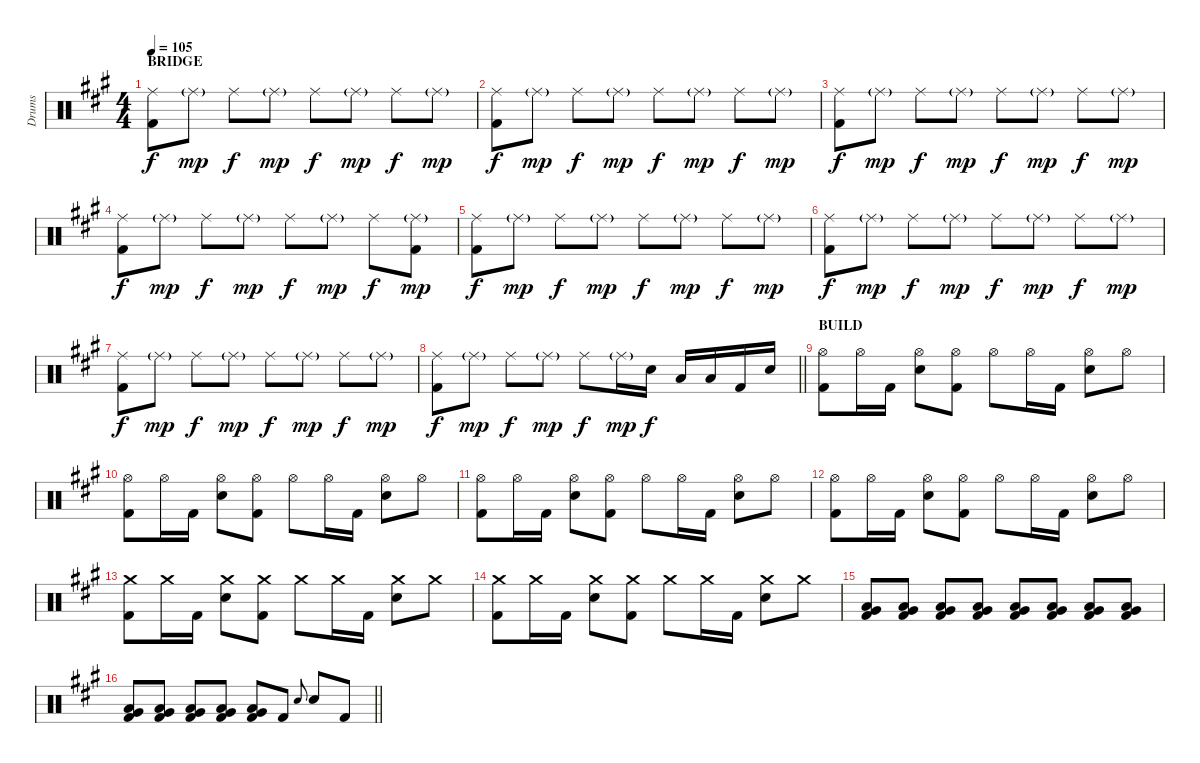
\track ("Drums" "Drums") {instrument percussion}
\staff {score}
\articulation defaults
\ts (4 4)
\section ("" "BRIDGE")
\tempo 105
\clef neutral
\ks f#minor
("Ride (middle)" "Kick (hit) 2").8{dy f} "Ride (middle)"{g}.8{dy mp} "Ride (middle)".8{dy f} "Ride (middle)"{g}.8{dy mp} "Ride (middle)".8{dy f} "Ride (middle)"{g}.8{dy mp} "Ride (middle)".8{dy f} "Ride (middle)"{g}.8{dy mp} |
("Ride (middle)" "Kick (hit) 2").8{dy f} "Ride (middle)"{g}.8{dy mp} "Ride (middle)".8{dy f} "Ride (middle)"{g}.8{dy mp} "Ride (middle)".8{dy f} "Ride (middle)"{g}.8{dy mp} "Ride (middle)".8{dy f} "Ride (middle)"{g}.8{dy mp} |
("Ride (middle)" "Kick (hit) 2").8{dy f} "Ride (middle)"{g}.8{dy mp} "Ride (middle)".8{dy f} "Ride (middle)"{g}.8{dy mp} "Ride (middle)".8{dy f} "Ride (middle)"{g}.8{dy mp} "Ride (middle)".8{dy f} "Ride (middle)"{g}.8{dy mp} |
("Ride (middle)" "Kick (hit) 2").8{dy f} "Ride (middle)"{g}.8{dy mp} "Ride (middle)".8{dy f} "Ride (middle)"{g}.8{dy mp} "Ride (middle)".8{dy f} "Ride (middle)"{g}.8{dy mp} "Ride (middle)".8{dy f} ("Ride (middle)"{g} "Kick (hit) 2").8{dy mp} |
("Ride (middle)" "Kick (hit) 2").8{dy f} "Ride (middle)"{g}.8{dy mp} "Ride (middle)".8{dy f} "Ride (middle)"{g}.8{dy mp} "Ride (middle)".8{dy f} "Ride (middle)"{g}.8{dy mp} "Ride (middle)".8{dy f} "Ride (middle)"{g}.8{dy mp} |
("Ride (middle)" "Kick (hit) 2").8{dy f} "Ride (middle)"{g}.8{dy mp} "Ride (middle)".8{dy f} "Ride (middle)"{g}.8{dy mp} "Ride (middle)".8{dy f} "Ride (middle)"{g}.8{dy mp} "Ride (middle)".8{dy f} "Ride (middle)"{g}.8{dy mp} |
("Ride (middle)" "Kick (hit) 2").8{dy f} "Ride (middle)"{g}.8{dy mp} "Ride (middle)".8{dy f} "Ride (middle)"{g}.8{dy mp} "Ride (middle)".8{dy f} "Ride (middle)"{g}.8{dy mp} "Ride (middle)".8{dy f} "Ride (middle)"{g}.8{dy mp} |
\barLineRight lightlight
("Ride (middle)" "Kick (hit) 2").8{dy f} "Ride (middle)"{g}.8{dy mp} "Ride (middle)".8{dy f} "Ride (middle)"{g}.8{dy mp} "Ride (middle)".8{dy f} "Ride (middle)"{g}.16{dy mp} "Electric Snare (hit)".16{dy f} "Low Tom (hit)".16 "Low Tom (hit)".16 "Kick (hit) 2".16 "Electric Snare (hit)".16 |
\section ("" "BUILD")
("Hi-Hat (open)" "Kick (hit) 2").8 "Hi-Hat (open)".16 "Kick (hit) 2".16 ("Electric Snare (hit)" "Hi-Hat (open)").8 ("Hi-Hat (open)" "Kick (hit) 2").8 "Hi-Hat (open)".8 "Hi-Hat (open)".16 "Kick (hit) 2".16 ("Electric Snare (hit)" "Hi-Hat (open)").8 "Hi-Hat (open)".8 |
("Hi-Hat (open)" "Kick (hit) 2").8 "Hi-Hat (open)".16 "Kick (hit) 2".16 ("Electric Snare (hit)" "Hi-Hat (open)").8 ("Hi-Hat (open)" "Kick (hit) 2").8 "Hi-Hat (open)".8 "Hi-Hat (open)".16 "Kick (hit) 2".16 ("Electric Snare (hit)" "Hi-Hat (open)").8 "Hi-Hat (open)".8 |
("Hi-Hat (open)" "Kick (hit) 2").8 "Hi-Hat (open)".16 "Kick (hit) 2".16 ("Electric Snare (hit)" "Hi-Hat (open)").8 ("Hi-Hat (open)" "Kick (hit) 2").8 "Hi-Hat (open)".8 "Hi-Hat (open)".16 "Kick (hit) 2".16 ("Electric Snare (hit)" "Hi-Hat (open)").8 "Hi-Hat (open)".8 |
("Hi-Hat (open)" "Kick (hit) 2").8 "Hi-Hat (open)".16 "Kick (hit) 2".16 ("Electric Snare (hit)" "Hi-Hat (open)").8 ("Hi-Hat (open)" "Kick (hit) 2").8 "Hi-Hat (open)".8 "Hi-Hat (open)".16 "Kick (hit) 2".16 ("Electric Snare (hit)" "Hi-Hat (open)").8 "Hi-Hat (open)".8 |
("Crash medium (hit)" "Kick (hit) 2").8 "Crash medium (hit)".16 "Kick (hit) 2".16 ("Electric Snare (hit)" "Crash medium (hit)").8 ("Crash medium (hit)" "Kick (hit) 2").8 "Crash medium (hit)".8 "Crash medium (hit)".16 "Kick (hit) 2".16 ("Electric Snare (hit)" "Crash medium (hit)").8 "Crash medium (hit)".8 |
("Crash medium (hit)" "Kick (hit) 2").8 "Crash medium (hit)".16 "Kick (hit) 2".16 ("Electric Snare (hit)" "Crash medium (hit)").8 ("Crash medium (hit)" "Kick (hit) 2").8 "Crash medium (hit)".8 "Crash medium (hit)".16 "Kick (hit) 2".16 ("Electric Snare (hit)" "Crash medium (hit)").8 "Crash medium (hit)".8 |
("Low Floor Tom (hit)" "Very Low Tom (hit)" "Kick (hit) 2").8 ("Low Floor Tom (hit)" "Very Low Tom (hit)" "Kick (hit) 2").8 ("Low Floor Tom (hit)" "Very Low Tom (hit)" "Kick (hit) 2").8 ("Low Floor Tom (hit)" "Very Low Tom (hit)" "Kick (hit) 2").8 ("Low Floor Tom (hit)" "Very Low Tom (hit)" "Kick (hit) 2").8 ("Low Floor Tom (hit)" "Very Low Tom (hit)" "Kick (hit) 2").8 ("Low Floor Tom (hit)" "Very Low Tom (hit)" "Kick (hit) 2").8 ("Low Floor Tom (hit)" "Very Low Tom (hit)" "Kick (hit) 2").8 |
\barLineRight lightlight
("Low Floor Tom (hit)" "Very Low Tom (hit)" "Kick (hit) 2").8 ("Low Floor Tom (hit)" "Very Low Tom (hit)" "Kick (hit) 2").8 ("Low Floor Tom (hit)" "Very Low Tom (hit)" "Kick (hit) 2").8 ("Low Floor Tom (hit)" "Very Low Tom (hit)" "Kick (hit) 2").8 ("Low Floor Tom (hit)" "Very Low Tom (hit)" "Kick (hit) 2").8 "Kick (hit) 2".8 "Electric Snare (hit)".8{gr onbeat} "Electric Snare (hit)".8 "Kick (hit) 2".8
